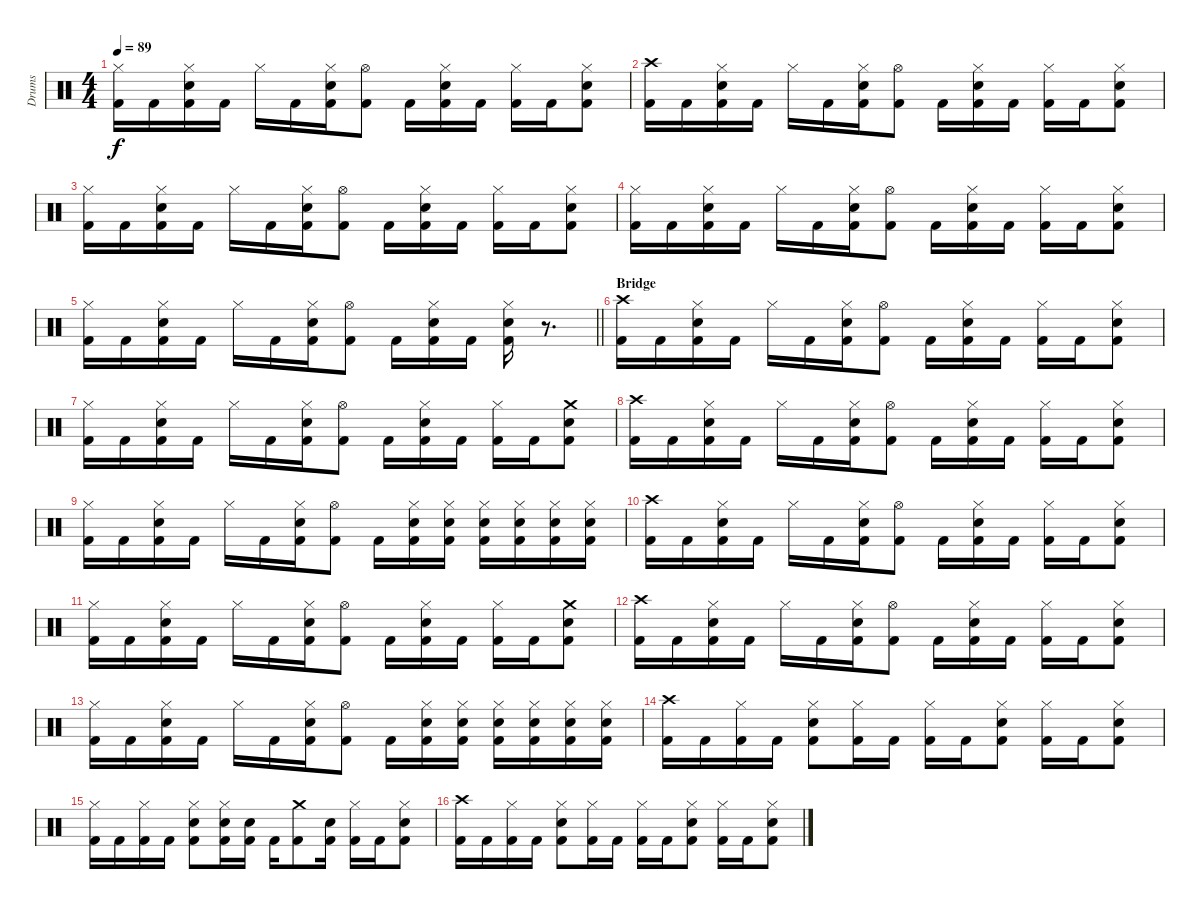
\track ("Drums" "Drums") {instrument percussion}
\staff {score}
\articulation defaults
\ts (4 4)
\tempo 89
\clef neutral
\ks c
("Hi-Hat (closed)" "Kick (hit) 2").16{dy f} "Kick (hit) 2".16 ("Hi-Hat (closed)" "Snare (hit) 2" "Kick (hit) 2").16 "Kick (hit) 2".16 "Hi-Hat (closed)".16 "Kick (hit) 2".16 ("Hi-Hat (closed)" "Snare (hit) 2" "Kick (hit) 2").16 ("Hi-Hat (open)" "Kick (hit) 2").8 "Kick (hit) 2".16 ("Hi-Hat (closed)" "Snare (hit) 2" "Kick (hit) 2").16 "Kick (hit) 2".16 ("Hi-Hat (closed)" "Kick (hit) 2").16 "Kick (hit) 2".16 ("Hi-Hat (closed)" "Snare (hit) 2" "Kick (hit) 2").8 |
("Crash high (hit)" "Kick (hit) 2").16 "Kick (hit) 2".16 ("Hi-Hat (closed)" "Snare (hit) 2" "Kick (hit) 2").16 "Kick (hit) 2".16 "Hi-Hat (closed)".16 "Kick (hit) 2".16 ("Hi-Hat (closed)" "Snare (hit) 2" "Kick (hit) 2").16 ("Hi-Hat (open)" "Kick (hit) 2").8 "Kick (hit) 2".16 ("Hi-Hat (closed)" "Snare (hit) 2" "Kick (hit) 2").16 "Kick (hit) 2".16 ("Hi-Hat (closed)" "Kick (hit) 2").16 "Kick (hit) 2".16 ("Hi-Hat (closed)" "Snare (hit) 2" "Kick (hit) 2").8 |
("Hi-Hat (closed)" "Kick (hit) 2").16 "Kick (hit) 2".16 ("Hi-Hat (closed)" "Snare (hit) 2" "Kick (hit) 2").16 "Kick (hit) 2".16 "Hi-Hat (closed)".16 "Kick (hit) 2".16 ("Hi-Hat (closed)" "Snare (hit) 2" "Kick (hit) 2").16 ("Hi-Hat (open)" "Kick (hit) 2").8 "Kick (hit) 2".16 ("Hi-Hat (closed)" "Snare (hit) 2" "Kick (hit) 2").16 "Kick (hit) 2".16 ("Hi-Hat (closed)" "Kick (hit) 2").16 "Kick (hit) 2".16 ("Hi-Hat (closed)" "Snare (hit) 2" "Kick (hit) 2").8 |
("Hi-Hat (closed)" "Kick (hit) 2").16 "Kick (hit) 2".16 ("Hi-Hat (closed)" "Snare (hit) 2" "Kick (hit) 2").16 "Kick (hit) 2".16 "Hi-Hat (closed)".16 "Kick (hit) 2".16 ("Hi-Hat (closed)" "Snare (hit) 2" "Kick (hit) 2").16 ("Hi-Hat (open)" "Kick (hit) 2").8 "Kick (hit) 2".16 ("Hi-Hat (closed)" "Snare (hit) 2" "Kick (hit) 2").16 "Kick (hit) 2".16 ("Hi-Hat (closed)" "Kick (hit) 2").16 "Kick (hit) 2".16 ("Hi-Hat (closed)" "Snare (hit) 2" "Kick (hit) 2").8 |
\barLineRight lightlight
("Hi-Hat (closed)" "Kick (hit) 2").16 "Kick (hit) 2".16 ("Hi-Hat (closed)" "Snare (hit) 2" "Kick (hit) 2").16 "Kick (hit) 2".16 "Hi-Hat (closed)".16 "Kick (hit) 2".16 ("Hi-Hat (closed)" "Snare (hit) 2" "Kick (hit) 2").16 ("Hi-Hat (open)" "Kick (hit) 2").8 "Kick (hit) 2".16 ("Hi-Hat (closed)" "Snare (hit) 2" "Kick (hit) 2").16 "Kick (hit) 2".16 ("Hi-Hat (closed)" "Snare (hit) 2" "Kick (hit) 2").16 r.8{d} |
\section ("" "Bridge")
("Crash high (hit)" "Kick (hit) 2").16 "Kick (hit) 2".16 ("Hi-Hat (closed)" "Snare (hit) 2" "Kick (hit) 2").16 "Kick (hit) 2".16 "Hi-Hat (closed)".16 "Kick (hit) 2".16 ("Hi-Hat (closed)" "Snare (hit) 2" "Kick (hit) 2").16 ("Hi-Hat (open)" "Kick (hit) 2").8 "Kick (hit) 2".16 ("Hi-Hat (closed)" "Snare (hit) 2" "Kick (hit) 2").16 "Kick (hit) 2".16 ("Hi-Hat (closed)" "Kick (hit) 2").16 "Kick (hit) 2".16 ("Hi-Hat (closed)" "Snare (hit) 2" "Kick (hit) 2").8 |
("Hi-Hat (closed)" "Kick (hit) 2").16 "Kick (hit) 2".16 ("Hi-Hat (closed)" "Snare (hit) 2" "Kick (hit) 2").16 "Kick (hit) 2".16 "Hi-Hat (closed)".16 "Kick (hit) 2".16 ("Hi-Hat (closed)" "Snare (hit) 2" "Kick (hit) 2").16 ("Hi-Hat (open)" "Kick (hit) 2").8 "Kick (hit) 2".16 ("Hi-Hat (closed)" "Snare (hit) 2" "Kick (hit) 2").16 "Kick (hit) 2".16 ("Hi-Hat (closed)" "Kick (hit) 2").16 "Kick (hit) 2".16 ("Crash medium (hit)" "Snare (hit) 2" "Kick (hit) 2").8 |
("Crash high (hit)" "Kick (hit) 2").16 "Kick (hit) 2".16 ("Hi-Hat (closed)" "Snare (hit) 2" "Kick (hit) 2").16 "Kick (hit) 2".16 "Hi-Hat (closed)".16 "Kick (hit) 2".16 ("Hi-Hat (closed)" "Snare (hit) 2" "Kick (hit) 2").16 ("Hi-Hat (open)" "Kick (hit) 2").8 "Kick (hit) 2".16 ("Hi-Hat (closed)" "Snare (hit) 2" "Kick (hit) 2").16 "Kick (hit) 2".16 ("Hi-Hat (closed)" "Kick (hit) 2").16 "Kick (hit) 2".16 ("Hi-Hat (closed)" "Snare (hit) 2" "Kick (hit) 2").8 |
("Hi-Hat (closed)" "Kick (hit) 2").16 "Kick (hit) 2".16 ("Hi-Hat (closed)" "Snare (hit) 2" "Kick (hit) 2").16 "Kick (hit) 2".16 "Hi-Hat (closed)".16 "Kick (hit) 2".16 ("Hi-Hat (closed)" "Snare (hit) 2" "Kick (hit) 2").16 ("Hi-Hat (open)" "Kick (hit) 2").8 "Kick (hit) 2".16 ("Hi-Hat (closed)" "Snare (hit) 2" "Kick (hit) 2").16 ("Hi-Hat (closed)" "Snare (hit) 2" "Kick (hit) 2").16 ("Hi-Hat (closed)" "Snare (hit) 2" "Kick (hit) 2").16 ("Hi-Hat (closed)" "Snare (hit) 2" "Kick (hit) 2").16 ("Hi-Hat (closed)" "Snare (hit) 2" "Kick (hit) 2").16 ("Hi-Hat (closed)" "Snare (hit) 2" "Kick (hit) 2").16 |
("Crash high (hit)" "Kick (hit) 2").16 "Kick (hit) 2".16 ("Hi-Hat (closed)" "Snare (hit) 2" "Kick (hit) 2").16 "Kick (hit) 2".16 "Hi-Hat (closed)".16 "Kick (hit) 2".16 ("Hi-Hat (closed)" "Snare (hit) 2" "Kick (hit) 2").16 ("Hi-Hat (open)" "Kick (hit) 2").8 "Kick (hit) 2".16 ("Hi-Hat (closed)" "Snare (hit) 2" "Kick (hit) 2").16 "Kick (hit) 2".16 ("Hi-Hat (closed)" "Kick (hit) 2").16 "Kick (hit) 2".16 ("Hi-Hat (closed)" "Snare (hit) 2" "Kick (hit) 2").8 |
("Hi-Hat (closed)" "Kick (hit) 2").16 "Kick (hit) 2".16 ("Hi-Hat (closed)" "Snare (hit) 2" "Kick (hit) 2").16 "Kick (hit) 2".16 "Hi-Hat (closed)".16 "Kick (hit) 2".16 ("Hi-Hat (closed)" "Snare (hit) 2" "Kick (hit) 2").16 ("Hi-Hat (open)" "Kick (hit) 2").8 "Kick (hit) 2".16 ("Hi-Hat (closed)" "Snare (hit) 2" "Kick (hit) 2").16 "Kick (hit) 2".16 ("Hi-Hat (closed)" "Kick (hit) 2").16 "Kick (hit) 2".16 ("Crash medium (hit)" "Snare (hit) 2" "Kick (hit) 2").8 |
("Crash high (hit)" "Kick (hit) 2").16 "Kick (hit) 2".16 ("Hi-Hat (closed)" "Snare (hit) 2" "Kick (hit) 2").16 "Kick (hit) 2".16 "Hi-Hat (closed)".16 "Kick (hit) 2".16 ("Hi-Hat (closed)" "Snare (hit) 2" "Kick (hit) 2").16 ("Hi-Hat (open)" "Kick (hit) 2").8 "Kick (hit) 2".16 ("Hi-Hat (closed)" "Snare (hit) 2" "Kick (hit) 2").16 "Kick (hit) 2".16 ("Hi-Hat (closed)" "Kick (hit) 2").16 "Kick (hit) 2".16 ("Hi-Hat (closed)" "Snare (hit) 2" "Kick (hit) 2").8 |
("Hi-Hat (closed)" "Kick (hit) 2").16 "Kick (hit) 2".16 ("Hi-Hat (closed)" "Snare (hit) 2" "Kick (hit) 2").16 "Kick (hit) 2".16 "Hi-Hat (closed)".16 "Kick (hit) 2".16 ("Hi-Hat (closed)" "Snare (hit) 2" "Kick (hit) 2").16 ("Hi-Hat (open)" "Kick (hit) 2").8 "Kick (hit) 2".16 ("Hi-Hat (closed)" "Snare (hit) 2" "Kick (hit) 2").16 ("Hi-Hat (closed)" "Snare (hit) 2" "Kick (hit) 2").16 ("Hi-Hat (closed)" "Snare (hit) 2" "Kick (hit) 2").16 ("Hi-Hat (closed)" "Snare (hit) 2" "Kick (hit) 2").16 ("Hi-Hat (closed)" "Snare (hit) 2" "Kick (hit) 2").16 ("Hi-Hat (closed)" "Snare (hit) 2" "Kick (hit) 2").16 |
("Crash high (hit)" "Kick (hit) 2").16 "Kick (hit) 2".16 ("Hi-Hat (closed)" "Kick (hit) 2").16 "Kick (hit) 2".16 ("Hi-Hat (closed)" "Snare (hit) 2" "Kick (hit) 2").8 ("Hi-Hat (closed)" "Kick (hit) 2").16 "Kick (hit) 2".16 ("Hi-Hat (closed)" "Kick (hit) 2").16 "Kick (hit) 2".16 ("Hi-Hat (closed)" "Snare (hit) 2" "Kick (hit) 2").8 ("Hi-Hat (closed)" "Kick (hit) 2").16 "Kick (hit) 2".16 ("Hi-Hat (closed)" "Snare (hit) 2" "Kick (hit) 2").8 |
("Hi-Hat (closed)" "Kick (hit) 2").16 "Kick (hit) 2".16 ("Hi-Hat (closed)" "Kick (hit) 2").16 "Kick (hit) 2".16 ("Hi-Hat (closed)" "Snare (hit) 2" "Kick (hit) 2").8 ("Hi-Hat (closed)" "Snare (hit) 2" "Kick (hit) 2").16 ("Snare (hit) 2" "Kick (hit) 2").16 "Kick (hit) 2".16 ("Crash medium (hit)" "Kick (hit) 2").8 ("Snare (hit) 2" "Kick (hit) 2").16 ("Hi-Hat (closed)" "Kick (hit) 2").16 "Kick (hit) 2".16 ("Hi-Hat (closed)" "Snare (hit) 2" "Kick (hit) 2").8 |
("Crash high (hit)" "Kick (hit) 2").16 "Kick (hit) 2".16 ("Hi-Hat (closed)" "Kick (hit) 2").16 "Kick (hit) 2".16 ("Hi-Hat (closed)" "Snare (hit) 2" "Kick (hit) 2").8 ("Hi-Hat (closed)" "Kick (hit) 2").16 "Kick (hit) 2".16 ("Hi-Hat (closed)" "Kick (hit) 2").16 "Kick (hit) 2".16 ("Hi-Hat (closed)" "Snare (hit) 2" "Kick (hit) 2").8 ("Hi-Hat (closed)" "Kick (hit) 2").16 "Kick (hit) 2".16 ("Hi-Hat (closed)" "Snare (hit) 2" "Kick (hit) 2").8
